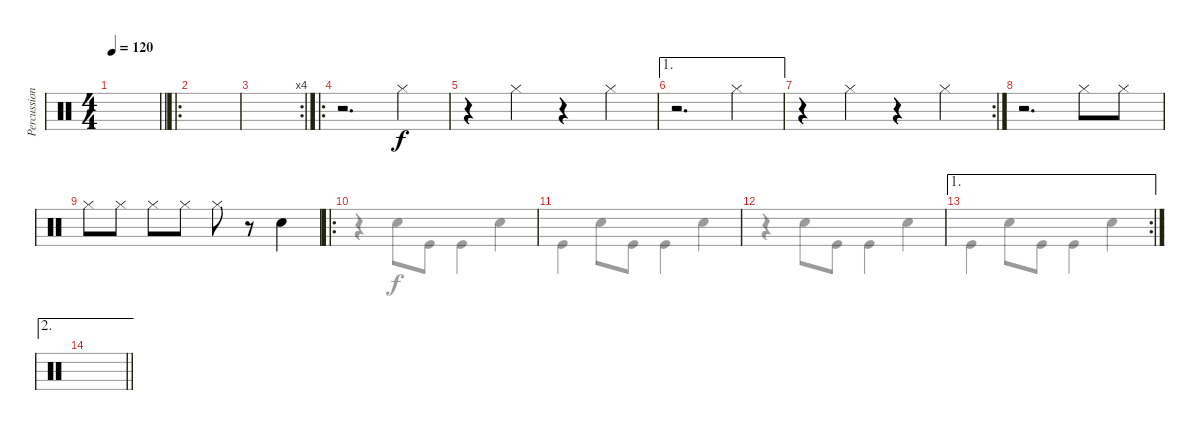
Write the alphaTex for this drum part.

\track ("Percussions 1" "Percussion") {instrument percussion}
\staff {score}
\articulation defaults
\voice
\ts (4 4)
\tempo 120
\clef neutral
\barLineRight lightlight
\ks c
|
\ro
|
\rc 4
|
\ro
r.2{d} "Hi-Hat (closed)".4 |
r.4 "Hi-Hat (closed)".4 r.4 "Hi-Hat (closed)".4 |
\ae 1
r.2{d} "Hi-Hat (closed)".4 |
\rc 2
r.4 "Hi-Hat (closed)".4 r.4 "Hi-Hat (closed)".4 |
r.2{d} "Hi-Hat (closed)".8 "Hi-Hat (closed)".8 |
"Hi-Hat (closed)".8 "Hi-Hat (closed)".8 "Hi-Hat (closed)".8 "Hi-Hat (closed)".8 "Hi-Hat (closed)".8 r.8 "Snare (hit) 2".4 |
\ro
|
|
|
\ae 1
\rc 2
|
\ae 2
\voice
\clef neutral
\ottava regular
\simile none
\barLineRight lightlight
\ks c
|
|
|
|
|
|
|
|
|
r.4 "Snare (hit) 2".8 "Kick (hit)".8 "Kick (hit)".4 "Snare (hit) 2".4 |
"Kick (hit)".4 "Snare (hit) 2".8 "Kick (hit)".8 "Kick (hit)".4 "Snare (hit) 2".4 |
r.4 "Snare (hit) 2".8 "Kick (hit)".8 "Kick (hit)".4 "Snare (hit) 2".4 |
"Kick (hit)".4 "Snare (hit) 2".8 "Kick (hit)".8 "Kick (hit)".4 "Snare (hit) 2".4 |
